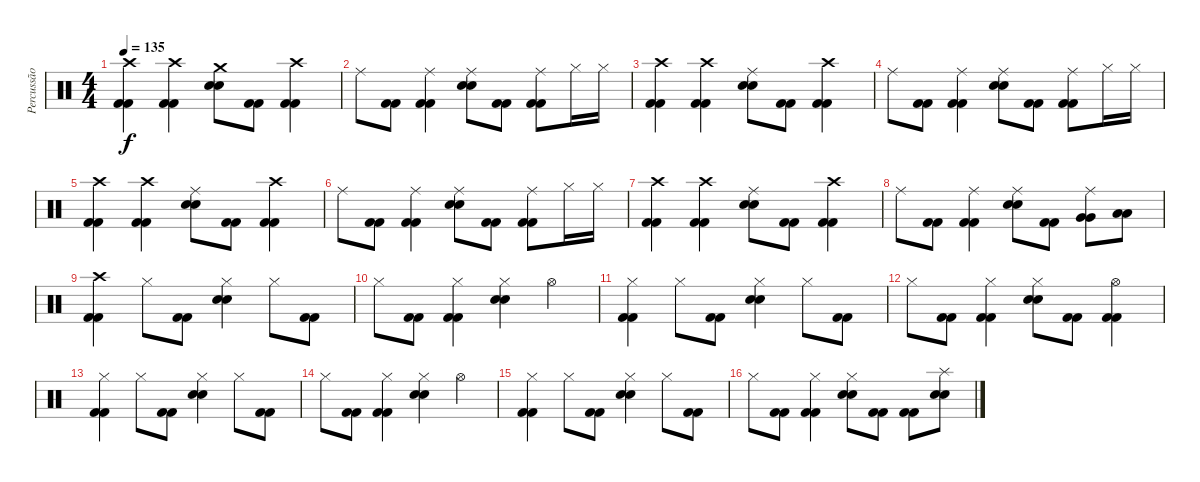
\track ("Percussão" "Percussão") {instrument percussion}
\staff {score}
\articulation defaults
\ts (4 4)
\tempo 135
\clef neutral
\ks c
("Crash high (hit)" "Kick (hit) 2" "Kick (hit) 2").4{dy f} ("Crash high (hit)" "Kick (hit) 2" "Kick (hit) 2").4 ("Crash medium (hit)" "Electric Snare (hit)" "Electric Snare (hit)").8 ("Kick (hit) 2" "Kick (hit) 2").8 ("Crash high (hit)" "Kick (hit) 2" "Kick (hit) 2").4 |
"Ride (middle)".8 ("Kick (hit) 2" "Kick (hit) 2").8 ("Ride (middle)" "Kick (hit) 2" "Kick (hit) 2").4 ("Ride (middle)" "Electric Snare (hit)" "Electric Snare (hit)").8 ("Kick (hit) 2" "Kick (hit) 2").8 ("Ride (middle)" "Kick (hit) 2" "Kick (hit) 2").8 "Hi-Hat (closed)".16 "Hi-Hat (closed)".16 |
("Crash high (hit)" "Kick (hit) 2" "Kick (hit) 2").4 ("Crash high (hit)" "Kick (hit) 2" "Kick (hit) 2").4 ("Ride (middle)" "Electric Snare (hit)" "Electric Snare (hit)").8 ("Kick (hit) 2" "Kick (hit) 2").8 ("Crash high (hit)" "Kick (hit) 2" "Kick (hit) 2").4 |
"Ride (middle)".8 ("Kick (hit) 2" "Kick (hit) 2").8 ("Ride (middle)" "Kick (hit) 2" "Kick (hit) 2").4 ("Ride (middle)" "Electric Snare (hit)" "Electric Snare (hit)").8 ("Kick (hit) 2" "Kick (hit) 2").8 ("Ride (middle)" "Kick (hit) 2" "Kick (hit) 2").8 "Hi-Hat (closed)".16 "Hi-Hat (closed)".16 |
("Crash high (hit)" "Kick (hit) 2" "Kick (hit) 2").4 ("Crash high (hit)" "Kick (hit) 2" "Kick (hit) 2").4 ("Ride (middle)" "Electric Snare (hit)" "Electric Snare (hit)").8 ("Kick (hit) 2" "Kick (hit) 2").8 ("Crash high (hit)" "Kick (hit) 2" "Kick (hit) 2").4 |
"Ride (middle)".8 ("Kick (hit) 2" "Kick (hit) 2").8 ("Ride (middle)" "Kick (hit) 2" "Kick (hit) 2").4 ("Ride (middle)" "Electric Snare (hit)" "Electric Snare (hit)").8 ("Kick (hit) 2" "Kick (hit) 2").8 ("Ride (middle)" "Kick (hit) 2" "Kick (hit) 2").8 "Hi-Hat (closed)".16 "Hi-Hat (closed)".16 |
("Crash high (hit)" "Kick (hit) 2" "Kick (hit) 2").4 ("Crash high (hit)" "Kick (hit) 2" "Kick (hit) 2").4 ("Ride (middle)" "Electric Snare (hit)" "Electric Snare (hit)").8 ("Kick (hit) 2" "Kick (hit) 2").8 ("Crash high (hit)" "Kick (hit) 2" "Kick (hit) 2").4 |
"Ride (middle)".8 ("Kick (hit) 2" "Kick (hit) 2").8 ("Ride (middle)" "Kick (hit) 2" "Kick (hit) 2").4 ("Ride (middle)" "Electric Snare (hit)" "Electric Snare (hit)").8 ("Kick (hit) 2" "Kick (hit) 2").8 ("Ride (middle)" "Very Low Tom (hit)" "Very Low Tom (hit)").8 ("Low Tom (hit)" "Low Tom (hit)").8 |
("Crash high (hit)" "Kick (hit) 2" "Kick (hit) 2").4 "Hi-Hat (closed)".8 ("Kick (hit) 2" "Kick (hit) 2").8 ("Hi-Hat (closed)" "Electric Snare (hit)" "Electric Snare (hit)").4 "Hi-Hat (closed)".8 ("Kick (hit) 2" "Kick (hit) 2").8 |
"Hi-Hat (closed)".8 ("Kick (hit) 2" "Kick (hit) 2").8 ("Hi-Hat (closed)" "Kick (hit) 2" "Kick (hit) 2").4 ("Hi-Hat (closed)" "Electric Snare (hit)" "Electric Snare (hit)").4 "Hi-Hat (open)".4 |
("Hi-Hat (closed)" "Kick (hit) 2" "Kick (hit) 2").4 "Hi-Hat (closed)".8 ("Kick (hit) 2" "Kick (hit) 2").8 ("Hi-Hat (closed)" "Electric Snare (hit)" "Electric Snare (hit)").4 "Hi-Hat (closed)".8 ("Kick (hit) 2" "Kick (hit) 2").8 |
"Hi-Hat (closed)".8 ("Kick (hit) 2" "Kick (hit) 2").8 ("Hi-Hat (closed)" "Kick (hit) 2" "Kick (hit) 2").4 ("Hi-Hat (closed)" "Electric Snare (hit)" "Electric Snare (hit)").8 ("Kick (hit) 2" "Kick (hit) 2").8 ("Hi-Hat (open)" "Kick (hit) 2" "Kick (hit) 2").4 |
("Hi-Hat (closed)" "Kick (hit) 2" "Kick (hit) 2").4 "Hi-Hat (closed)".8 ("Kick (hit) 2" "Kick (hit) 2").8 ("Hi-Hat (closed)" "Electric Snare (hit)" "Electric Snare (hit)").4 "Hi-Hat (closed)".8 ("Kick (hit) 2" "Kick (hit) 2").8 |
"Hi-Hat (closed)".8 ("Kick (hit) 2" "Kick (hit) 2").8 ("Hi-Hat (closed)" "Kick (hit) 2" "Kick (hit) 2").4 ("Hi-Hat (closed)" "Electric Snare (hit)" "Electric Snare (hit)").4 "Hi-Hat (open)".4 |
("Hi-Hat (closed)" "Kick (hit) 2" "Kick (hit) 2").4 "Hi-Hat (closed)".8 ("Kick (hit) 2" "Kick (hit) 2").8 ("Hi-Hat (closed)" "Electric Snare (hit)" "Electric Snare (hit)").4 "Hi-Hat (closed)".8 ("Kick (hit) 2" "Kick (hit) 2").8 |
"Hi-Hat (closed)".8 ("Kick (hit) 2" "Kick (hit) 2").8 ("Hi-Hat (closed)" "Kick (hit) 2" "Kick (hit) 2").4 ("Hi-Hat (closed)" "Electric Snare (hit)" "Electric Snare (hit)").8 ("Kick (hit) 2" "Kick (hit) 2").8 ("Kick (hit) 2" "Kick (hit) 2").8 ("Splash (hit)" "Electric Snare (hit)" "Electric Snare (hit)").8
